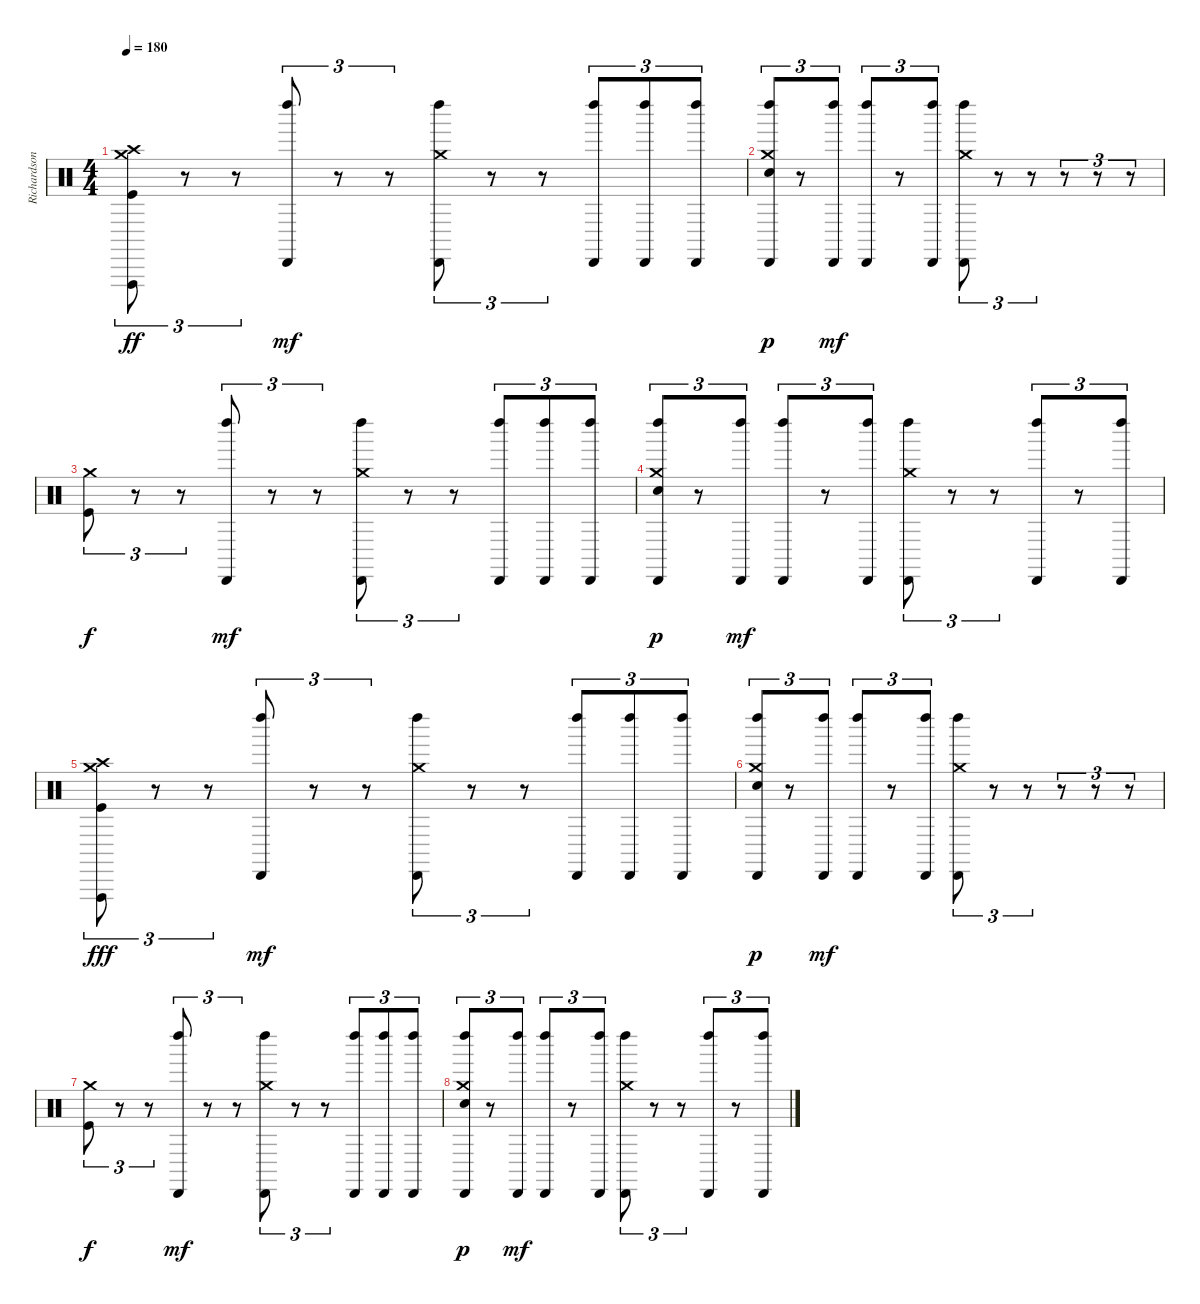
\track ("Richardson" "Richardson") {instrument percussion}
\staff {score}
\articulation defaults
\ts (4 4)
\tempo 180
\clef neutral
\ks c
("Crash medium (hit)" "Crash high (hit)" "Vibraslap (hit)" "Kick (hit)").8{tu (3 2) dy ff} r.8{tu (3 2)} r.8{tu (3 2)} ("Cabasa (hit)" "Left Maraca (hit)").8{tu (3 2) dy mf} r.8{tu (3 2)} r.8{tu (3 2)} ("Crash medium (hit)" "Cabasa (hit)" "Left Maraca (hit)").8{tu (3 2)} r.8{tu (3 2)} r.8{tu (3 2)} ("Cabasa (hit)" "Left Maraca (hit)").8{tu (3 2)} ("Cabasa (hit)" "Left Maraca (hit)").8{tu (3 2)} ("Cabasa (hit)" "Left Maraca (hit)").8{tu (3 2)} |
("Crash medium (hit)" "Left Maraca (hit)" "Electric Snare (hit)" "Cabasa (hit)").8{tu (3 2) dy p} r.8{tu (3 2)} ("Cabasa (hit)" "Left Maraca (hit)").8{tu (3 2) dy mf} ("Cabasa (hit)" "Left Maraca (hit)").8{tu (3 2)} r.8{tu (3 2)} ("Cabasa (hit)" "Left Maraca (hit)").8{tu (3 2)} ("Crash medium (hit)" "Cabasa (hit)" "Left Maraca (hit)").8{tu (3 2)} r.8{tu (3 2)} r.8{tu (3 2)} r.8{tu (3 2)} r.8{tu (3 2)} r.8{tu (3 2)} |
("Crash medium (hit)" "Kick (hit)").8{tu (3 2) dy f} r.8{tu (3 2)} r.8{tu (3 2)} ("Cabasa (hit)" "Left Maraca (hit)").8{tu (3 2) dy mf} r.8{tu (3 2)} r.8{tu (3 2)} ("Crash medium (hit)" "Cabasa (hit)" "Left Maraca (hit)").8{tu (3 2)} r.8{tu (3 2)} r.8{tu (3 2)} ("Cabasa (hit)" "Left Maraca (hit)").8{tu (3 2)} ("Cabasa (hit)" "Left Maraca (hit)").8{tu (3 2)} ("Cabasa (hit)" "Left Maraca (hit)").8{tu (3 2)} |
("Crash medium (hit)" "Left Maraca (hit)" "Electric Snare (hit)" "Cabasa (hit)").8{tu (3 2) dy p} r.8{tu (3 2)} ("Cabasa (hit)" "Left Maraca (hit)").8{tu (3 2) dy mf} ("Cabasa (hit)" "Left Maraca (hit)").8{tu (3 2)} r.8{tu (3 2)} ("Cabasa (hit)" "Left Maraca (hit)").8{tu (3 2)} ("Crash medium (hit)" "Cabasa (hit)" "Left Maraca (hit)").8{tu (3 2)} r.8{tu (3 2)} r.8{tu (3 2)} ("Cabasa (hit)" "Left Maraca (hit)").8{tu (3 2)} r.8{tu (3 2)} ("Cabasa (hit)" "Left Maraca (hit)").8{tu (3 2)} |
("Crash medium (hit)" "Crash high (hit)" "Vibraslap (hit)" "Kick (hit)").8{tu (3 2) dy fff} r.8{tu (3 2)} r.8{tu (3 2)} ("Cabasa (hit)" "Left Maraca (hit)").8{tu (3 2) dy mf} r.8{tu (3 2)} r.8{tu (3 2)} ("Crash medium (hit)" "Cabasa (hit)" "Left Maraca (hit)").8{tu (3 2)} r.8{tu (3 2)} r.8{tu (3 2)} ("Cabasa (hit)" "Left Maraca (hit)").8{tu (3 2)} ("Cabasa (hit)" "Left Maraca (hit)").8{tu (3 2)} ("Cabasa (hit)" "Left Maraca (hit)").8{tu (3 2)} |
("Crash medium (hit)" "Left Maraca (hit)" "Electric Snare (hit)" "Cabasa (hit)").8{tu (3 2) dy p} r.8{tu (3 2)} ("Cabasa (hit)" "Left Maraca (hit)").8{tu (3 2) dy mf} ("Cabasa (hit)" "Left Maraca (hit)").8{tu (3 2)} r.8{tu (3 2)} ("Cabasa (hit)" "Left Maraca (hit)").8{tu (3 2)} ("Crash medium (hit)" "Cabasa (hit)" "Left Maraca (hit)").8{tu (3 2)} r.8{tu (3 2)} r.8{tu (3 2)} r.8{tu (3 2)} r.8{tu (3 2)} r.8{tu (3 2)} |
("Crash medium (hit)" "Kick (hit)").8{tu (3 2) dy f} r.8{tu (3 2)} r.8{tu (3 2)} ("Cabasa (hit)" "Left Maraca (hit)").8{tu (3 2) dy mf} r.8{tu (3 2)} r.8{tu (3 2)} ("Crash medium (hit)" "Cabasa (hit)" "Left Maraca (hit)").8{tu (3 2)} r.8{tu (3 2)} r.8{tu (3 2)} ("Cabasa (hit)" "Left Maraca (hit)").8{tu (3 2)} ("Cabasa (hit)" "Left Maraca (hit)").8{tu (3 2)} ("Cabasa (hit)" "Left Maraca (hit)").8{tu (3 2)} |
("Crash medium (hit)" "Left Maraca (hit)" "Electric Snare (hit)" "Cabasa (hit)").8{tu (3 2) dy p} r.8{tu (3 2)} ("Cabasa (hit)" "Left Maraca (hit)").8{tu (3 2) dy mf} ("Cabasa (hit)" "Left Maraca (hit)").8{tu (3 2)} r.8{tu (3 2)} ("Cabasa (hit)" "Left Maraca (hit)").8{tu (3 2)} ("Crash medium (hit)" "Cabasa (hit)" "Left Maraca (hit)").8{tu (3 2)} r.8{tu (3 2)} r.8{tu (3 2)} ("Cabasa (hit)" "Left Maraca (hit)").8{tu (3 2)} r.8{tu (3 2)} ("Cabasa (hit)" "Left Maraca (hit)").8{tu (3 2)}
